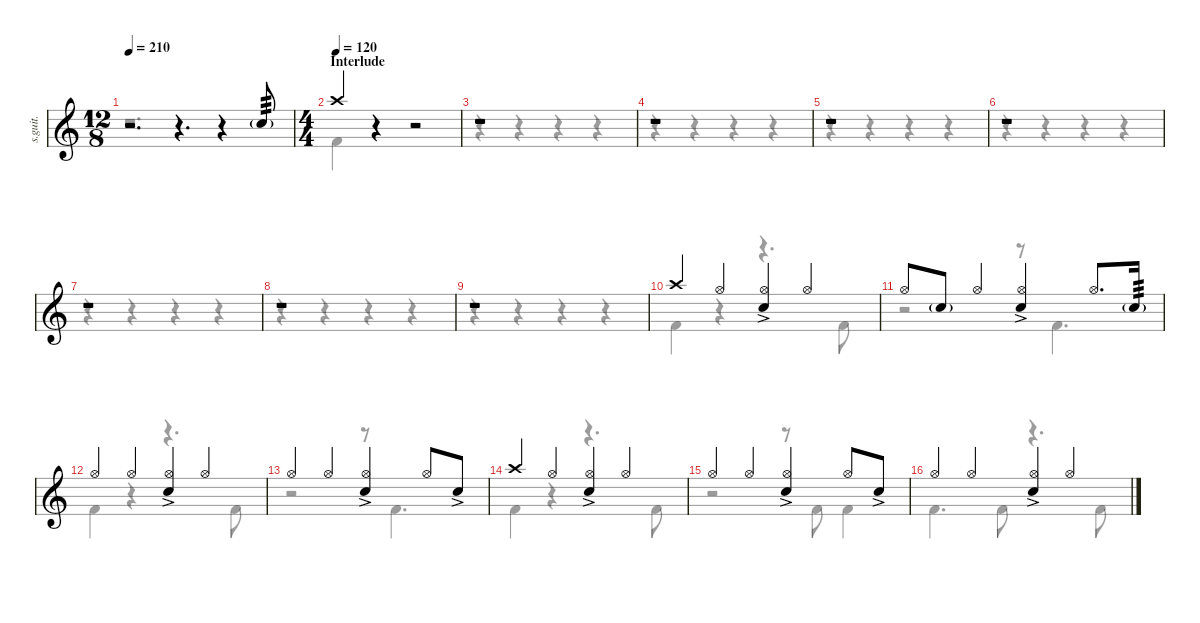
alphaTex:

\defaultSystemsLayout 4
\hideDynamics
\bracketExtendMode nobrackets
\track ("Percussion" "s.guit.") {instrument percussion}
\staff {score}
\articulation defaults
\voice
\ts (12 8)
\tempo 210
\clef g2
\ks c
r.2{d dy f} r.4{d} r.4 "Snare (hit) 2"{g}.8{lyrics (0 "") lyrics (1 "") lyrics (2 "") lyrics (3 "") lyrics (4 "") tp 3} |
\ts (4 4)
\beaming (8 2 2 2 2)
\section ("" "Interlude")
\tempo (120)
"Crash high (hit)".4{lyrics (0 "") lyrics (1 "") lyrics (2 "") lyrics (3 "") lyrics (4 "") dy mf} r.4 r.2 |
r.1 |
r.1 |
r.1 |
r.1 |
r.1 |
r.1 |
r.1 |
"Crash high (hit)".4{lyrics (0 "") lyrics (1 "") lyrics (2 "") lyrics (3 "") lyrics (4 "")} "Hi-Hat (open)".4{lyrics (0 "") lyrics (1 "") lyrics (2 "") lyrics (3 "") lyrics (4 "")} ("Hi-Hat (open)" "Snare (hit) 2"{ac}).4{lyrics (0 "") lyrics (1 "") lyrics (2 "") lyrics (3 "") lyrics (4 "")} "Hi-Hat (open)".4{lyrics (0 "") lyrics (1 "") lyrics (2 "") lyrics (3 "") lyrics (4 "")} |
"Hi-Hat (open)".8{lyrics (0 "") lyrics (1 "") lyrics (2 "") lyrics (3 "") lyrics (4 "")} "Snare (hit) 2"{g}.8{lyrics (0 "") lyrics (1 "") lyrics (2 "") lyrics (3 "") lyrics (4 "") dy f} "Hi-Hat (open)".4{lyrics (0 "") lyrics (1 "") lyrics (2 "") lyrics (3 "") lyrics (4 "") dy mf} ("Snare (hit) 2"{ac} "Hi-Hat (open)").4{lyrics (0 "") lyrics (1 "") lyrics (2 "") lyrics (3 "") lyrics (4 "")} "Hi-Hat (open)".8{d lyrics (0 "") lyrics (1 "") lyrics (2 "") lyrics (3 "") lyrics (4 "")} "Snare (hit) 2"{g}.16{lyrics (0 "") lyrics (1 "") lyrics (2 "") lyrics (3 "") lyrics (4 "") tp 3 dy f} |
"Hi-Hat (open)".4{lyrics (0 "") lyrics (1 "") lyrics (2 "") lyrics (3 "") lyrics (4 "") dy mf} "Hi-Hat (open)".4{lyrics (0 "") lyrics (1 "") lyrics (2 "") lyrics (3 "") lyrics (4 "")} ("Hi-Hat (open)" "Snare (hit) 2"{ac}).4{lyrics (0 "") lyrics (1 "") lyrics (2 "") lyrics (3 "") lyrics (4 "")} "Hi-Hat (open)".4{lyrics (0 "") lyrics (1 "") lyrics (2 "") lyrics (3 "") lyrics (4 "")} |
"Hi-Hat (open)".4{lyrics (0 "") lyrics (1 "") lyrics (2 "") lyrics (3 "") lyrics (4 "")} "Hi-Hat (open)".4{lyrics (0 "") lyrics (1 "") lyrics (2 "") lyrics (3 "") lyrics (4 "")} ("Snare (hit) 2"{ac} "Hi-Hat (open)").4{lyrics (0 "") lyrics (1 "") lyrics (2 "") lyrics (3 "") lyrics (4 "")} "Hi-Hat (open)".8{lyrics (0 "") lyrics (1 "") lyrics (2 "") lyrics (3 "") lyrics (4 "")} "Snare (hit) 2"{ac}.8{lyrics (0 "") lyrics (1 "") lyrics (2 "") lyrics (3 "") lyrics (4 "") dy mp} |
"Crash high (hit)".4{lyrics (0 "") lyrics (1 "") lyrics (2 "") lyrics (3 "") lyrics (4 "") dy mf} "Hi-Hat (open)".4{lyrics (0 "") lyrics (1 "") lyrics (2 "") lyrics (3 "") lyrics (4 "")} ("Hi-Hat (open)" "Snare (hit) 2"{ac}).4{lyrics (0 "") lyrics (1 "") lyrics (2 "") lyrics (3 "") lyrics (4 "")} "Hi-Hat (open)".4{lyrics (0 "") lyrics (1 "") lyrics (2 "") lyrics (3 "") lyrics (4 "")} |
"Hi-Hat (open)".4{lyrics (0 "") lyrics (1 "") lyrics (2 "") lyrics (3 "") lyrics (4 "")} "Hi-Hat (open)".4{lyrics (0 "") lyrics (1 "") lyrics (2 "") lyrics (3 "") lyrics (4 "")} ("Snare (hit) 2"{ac} "Hi-Hat (open)").4{lyrics (0 "") lyrics (1 "") lyrics (2 "") lyrics (3 "") lyrics (4 "")} "Hi-Hat (open)".8{lyrics (0 "") lyrics (1 "") lyrics (2 "") lyrics (3 "") lyrics (4 "")} "Snare (hit) 2"{ac}.8{lyrics (0 "") lyrics (1 "") lyrics (2 "") lyrics (3 "") lyrics (4 "") dy mp} |
"Hi-Hat (open)".4{lyrics (0 "") lyrics (1 "") lyrics (2 "") lyrics (3 "") lyrics (4 "") dy mf} "Hi-Hat (open)".4{lyrics (0 "") lyrics (1 "") lyrics (2 "") lyrics (3 "") lyrics (4 "")} ("Hi-Hat (open)" "Snare (hit) 2"{ac}).4{lyrics (0 "") lyrics (1 "") lyrics (2 "") lyrics (3 "") lyrics (4 "")} "Hi-Hat (open)".4{lyrics (0 "") lyrics (1 "") lyrics (2 "") lyrics (3 "") lyrics (4 "")}
\voice
\clef g2
\ottava regular
\simile none
\ks c
r.1{d dy f} |
"Kick (hit) 2".4{lyrics (0 "") lyrics (1 "") lyrics (2 "") lyrics (3 "") lyrics (4 "")} r.4 r.2 |
r.4 r.4 r.4 r.4 |
r.4 r.4 r.4 r.4 |
r.4 r.4 r.4 r.4 |
r.4 r.4 r.4 r.4 |
r.4 r.4 r.4 r.4 |
r.4 r.4 r.4 r.4 |
r.4 r.4 r.4 r.4 |
"Kick (hit) 2".4{lyrics (0 "") lyrics (1 "") lyrics (2 "") lyrics (3 "") lyrics (4 "") dy mf} r.4 r.4{d} "Kick (hit) 2".8{lyrics (0 "") lyrics (1 "") lyrics (2 "") lyrics (3 "") lyrics (4 "")} |
r.2 r.8 "Kick (hit) 2".4{d lyrics (0 "") lyrics (1 "") lyrics (2 "") lyrics (3 "") lyrics (4 "")} |
"Kick (hit) 2".4{lyrics (0 "") lyrics (1 "") lyrics (2 "") lyrics (3 "") lyrics (4 "")} r.4 r.4{d} "Kick (hit) 2".8{lyrics (0 "") lyrics (1 "") lyrics (2 "") lyrics (3 "") lyrics (4 "")} |
r.2 r.8 "Kick (hit) 2".4{d lyrics (0 "") lyrics (1 "") lyrics (2 "") lyrics (3 "") lyrics (4 "")} |
"Kick (hit) 2".4{lyrics (0 "") lyrics (1 "") lyrics (2 "") lyrics (3 "") lyrics (4 "")} r.4 r.4{d} "Kick (hit) 2".8{lyrics (0 "") lyrics (1 "") lyrics (2 "") lyrics (3 "") lyrics (4 "")} |
r.2 r.8 "Kick (hit) 2".8{lyrics (0 "") lyrics (1 "") lyrics (2 "") lyrics (3 "") lyrics (4 "")} "Kick (hit) 2".4{lyrics (0 "") lyrics (1 "") lyrics (2 "") lyrics (3 "") lyrics (4 "")} |
"Kick (hit) 2".4{d lyrics (0 "") lyrics (1 "") lyrics (2 "") lyrics (3 "") lyrics (4 "")} "Kick (hit) 2".8{lyrics (0 "") lyrics (1 "") lyrics (2 "") lyrics (3 "") lyrics (4 "")} r.4{d} "Kick (hit) 2".8{lyrics (0 "") lyrics (1 "") lyrics (2 "") lyrics (3 "") lyrics (4 "")}
